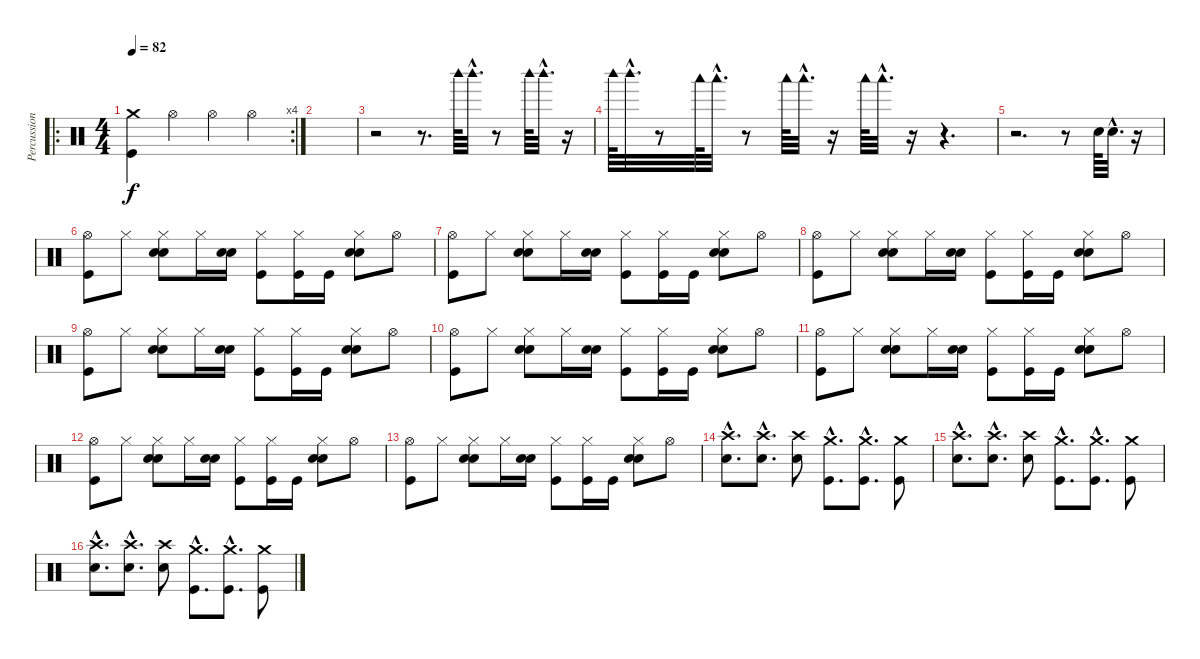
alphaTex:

\track ("Percussion" "Percussion") {instrument percussion}
\staff {score}
\articulation defaults
\ro
\rc 4
\ts (4 4)
\tempo 82
\tempo 114
\tempo 82
\clef neutral
\ks c
("Crash medium (hit)" "Kick (hit)").4{dy f} "Hi-Hat (open)".4 "Hi-Hat (open)".4 "Hi-Hat (open)".4 |
|
r.2 r.8{d} "Woodblock high (hit)".64 "Woodblock high (hit)"{hac}.32{d} r.8 "Woodblock high (hit)".64 "Woodblock high (hit)"{hac}.32{d} r.16 |
"Woodblock high (hit)".64 "Woodblock high (hit)"{hac}.32{d} r.8 "Woodblock low (hit)".64 "Woodblock low (hit)"{hac}.32{d} r.8 "Woodblock low (hit)".64 "Woodblock low (hit)"{hac}.32{d} r.16 "Woodblock low (hit)".64 "Woodblock low (hit)"{hac}.32{d} r.16 r.4{d} |
r.2{d} r.8 "Snare (hit) 2".64 "Snare (hit) 2"{hac}.32{d} r.16 |
("Hi-Hat (open)" "Kick (hit)").8 "Hi-Hat (closed)".8 ("Hi-Hat (closed)" "Electric Snare (hit)" "Snare (hit) 2").8 "Hi-Hat (closed)".16 ("Electric Snare (hit)" "Snare (hit) 2").16 ("Hi-Hat (closed)" "Kick (hit)").8 ("Hi-Hat (closed)" "Kick (hit)").16 "Kick (hit)".16 ("Hi-Hat (closed)" "Electric Snare (hit)" "Snare (hit) 2").8 "Hi-Hat (open)".8 |
("Hi-Hat (open)" "Kick (hit)").8 "Hi-Hat (closed)".8 ("Hi-Hat (closed)" "Electric Snare (hit)" "Snare (hit) 2").8 "Hi-Hat (closed)".16 ("Electric Snare (hit)" "Snare (hit) 2").16 ("Hi-Hat (closed)" "Kick (hit)").8 ("Hi-Hat (closed)" "Kick (hit)").16 "Kick (hit)".16 ("Hi-Hat (closed)" "Electric Snare (hit)" "Snare (hit) 2").8 "Hi-Hat (open)".8 |
("Hi-Hat (open)" "Kick (hit)").8 "Hi-Hat (closed)".8 ("Hi-Hat (closed)" "Electric Snare (hit)" "Snare (hit) 2").8 "Hi-Hat (closed)".16 ("Electric Snare (hit)" "Snare (hit) 2").16 ("Hi-Hat (closed)" "Kick (hit)").8 ("Hi-Hat (closed)" "Kick (hit)").16 "Kick (hit)".16 ("Hi-Hat (closed)" "Electric Snare (hit)" "Snare (hit) 2").8 "Hi-Hat (open)".8 |
("Hi-Hat (open)" "Kick (hit)").8 "Hi-Hat (closed)".8 ("Hi-Hat (closed)" "Electric Snare (hit)" "Snare (hit) 2").8 "Hi-Hat (closed)".16 ("Electric Snare (hit)" "Snare (hit) 2").16 ("Hi-Hat (closed)" "Kick (hit)").8 ("Hi-Hat (closed)" "Kick (hit)").16 "Kick (hit)".16 ("Hi-Hat (closed)" "Electric Snare (hit)" "Snare (hit) 2").8 "Hi-Hat (open)".8 |
("Hi-Hat (open)" "Kick (hit)").8 "Hi-Hat (closed)".8 ("Hi-Hat (closed)" "Electric Snare (hit)" "Snare (hit) 2").8 "Hi-Hat (closed)".16 ("Electric Snare (hit)" "Snare (hit) 2").16 ("Hi-Hat (closed)" "Kick (hit)").8 ("Hi-Hat (closed)" "Kick (hit)").16 "Kick (hit)".16 ("Hi-Hat (closed)" "Electric Snare (hit)" "Snare (hit) 2").8 "Hi-Hat (open)".8 |
("Hi-Hat (open)" "Kick (hit)").8 "Hi-Hat (closed)".8 ("Hi-Hat (closed)" "Electric Snare (hit)" "Snare (hit) 2").8 "Hi-Hat (closed)".16 ("Electric Snare (hit)" "Snare (hit) 2").16 ("Hi-Hat (closed)" "Kick (hit)").8 ("Hi-Hat (closed)" "Kick (hit)").16 "Kick (hit)".16 ("Hi-Hat (closed)" "Electric Snare (hit)" "Snare (hit) 2").8 "Hi-Hat (open)".8 |
("Hi-Hat (open)" "Kick (hit)").8 "Hi-Hat (closed)".8 ("Hi-Hat (closed)" "Electric Snare (hit)" "Snare (hit) 2").8 "Hi-Hat (closed)".16 ("Electric Snare (hit)" "Snare (hit) 2").16 ("Hi-Hat (closed)" "Kick (hit)").8 ("Hi-Hat (closed)" "Kick (hit)").16 "Kick (hit)".16 ("Hi-Hat (closed)" "Electric Snare (hit)" "Snare (hit) 2").8 "Hi-Hat (open)".8 |
("Hi-Hat (open)" "Kick (hit)").8 "Hi-Hat (closed)".8 ("Hi-Hat (closed)" "Electric Snare (hit)" "Snare (hit) 2").8 "Hi-Hat (closed)".16 ("Electric Snare (hit)" "Snare (hit) 2").16 ("Hi-Hat (closed)" "Kick (hit)").8 ("Hi-Hat (closed)" "Kick (hit)").16 "Kick (hit)".16 ("Hi-Hat (closed)" "Electric Snare (hit)" "Snare (hit) 2").8 "Hi-Hat (open)".8 |
("Crash high (hit)"{hac} "Snare (hit) 2"{hac}).8{d} ("Crash high (hit)"{hac} "Snare (hit) 2"{hac}).8{d} ("Crash high (hit)" "Snare (hit) 2").8 ("Crash medium (hit)"{hac} "Kick (hit)"{hac}).8{d} ("Crash medium (hit)"{hac} "Kick (hit)"{hac}).8{d} ("Crash medium (hit)" "Kick (hit)").8 |
("Crash high (hit)"{hac} "Snare (hit) 2"{hac}).8{d} ("Crash high (hit)"{hac} "Snare (hit) 2"{hac}).8{d} ("Crash high (hit)" "Snare (hit) 2").8 ("Crash medium (hit)"{hac} "Kick (hit)"{hac}).8{d} ("Crash medium (hit)"{hac} "Kick (hit)"{hac}).8{d} ("Crash medium (hit)" "Kick (hit)").8 |
("Crash high (hit)"{hac} "Snare (hit) 2"{hac}).8{d} ("Crash high (hit)"{hac} "Snare (hit) 2"{hac}).8{d} ("Crash high (hit)" "Snare (hit) 2").8 ("Crash medium (hit)"{hac} "Kick (hit)"{hac}).8{d} ("Crash medium (hit)"{hac} "Kick (hit)"{hac}).8{d} ("Crash medium (hit)" "Kick (hit)").8
